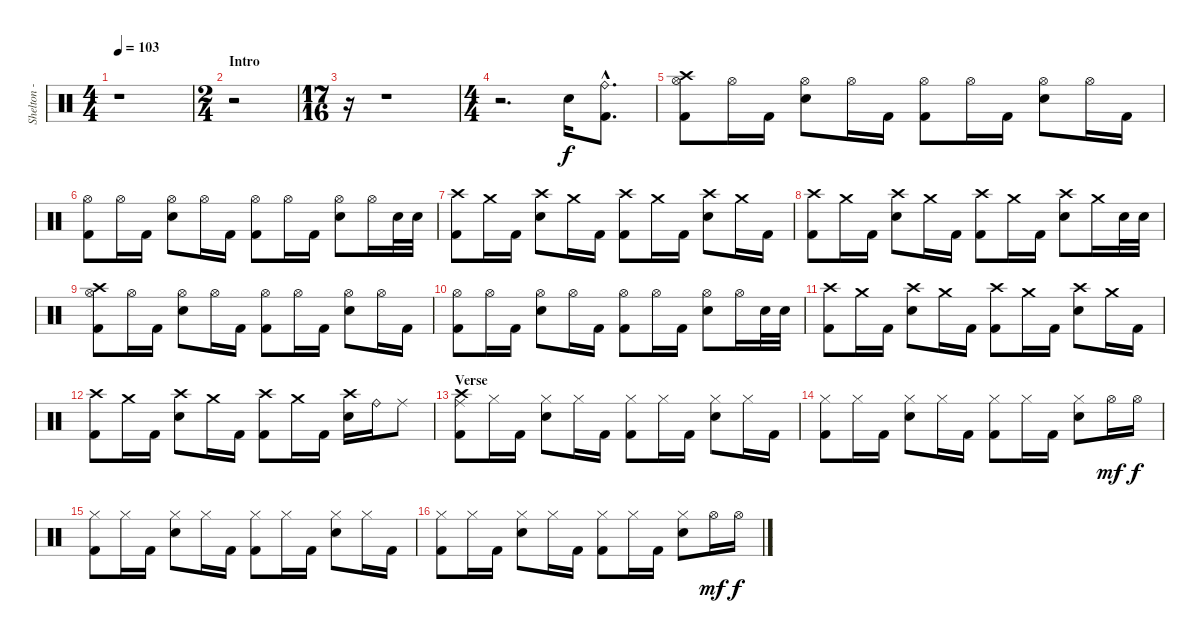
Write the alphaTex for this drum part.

\track ("Shelton - Drums" "Shelton - ") {instrument percussion}
\staff {score}
\articulation defaults
\ts (4 4)
\tempo 103
\clef neutral
\ks c
r.1{dy f} |
\ts (2 4)
\section ("" "Intro")
r.2 |
\ts (17 16)
r.16 r.1 |
\ts (4 4)
r.2{d} "Electric Snare (hit)".16 ("Ride (bell)"{hac} "Kick (hit) 2"{hac}).8{d} |
("Hi-Hat (open)" "Crash high (hit)" "Kick (hit) 2").8 "Hi-Hat (open)".16 "Kick (hit) 2".16 ("Hi-Hat (open)" "Electric Snare (hit)").8 "Hi-Hat (open)".16 "Kick (hit) 2".16 ("Hi-Hat (open)" "Kick (hit) 2").8 "Hi-Hat (open)".16 "Kick (hit) 2".16 ("Hi-Hat (open)" "Electric Snare (hit)").8 "Hi-Hat (open)".16 "Kick (hit) 2".16 |
("Hi-Hat (open)" "Kick (hit) 2").8 "Hi-Hat (open)".16 "Kick (hit) 2".16 ("Hi-Hat (open)" "Electric Snare (hit)").8 "Hi-Hat (open)".16 "Kick (hit) 2".16 ("Hi-Hat (open)" "Kick (hit) 2").8 "Hi-Hat (open)".16 "Kick (hit) 2".16 ("Hi-Hat (open)" "Electric Snare (hit)").8 "Hi-Hat (open)".16 "Electric Snare (hit)".32 "Electric Snare (hit)".32 |
("Crash high (hit)" "Kick (hit) 2").8 "Crash medium (hit)".16 "Kick (hit) 2".16 ("Crash high (hit)" "Electric Snare (hit)").8 "Crash medium (hit)".16 "Kick (hit) 2".16 ("Crash high (hit)" "Kick (hit) 2").8 "Crash medium (hit)".16 "Kick (hit) 2".16 ("Crash high (hit)" "Electric Snare (hit)").8 "Crash medium (hit)".16 "Kick (hit) 2".16 |
("Crash high (hit)" "Kick (hit) 2").8 "Crash medium (hit)".16 "Kick (hit) 2".16 ("Crash high (hit)" "Electric Snare (hit)").8 "Crash medium (hit)".16 "Kick (hit) 2".16 ("Crash high (hit)" "Kick (hit) 2").8 "Crash medium (hit)".16 "Kick (hit) 2".16 ("Crash high (hit)" "Electric Snare (hit)").8 "Crash medium (hit)".16 "Electric Snare (hit)".32 "Electric Snare (hit)".32 |
("Hi-Hat (open)" "Crash high (hit)" "Kick (hit) 2").8 "Hi-Hat (open)".16 "Kick (hit) 2".16 ("Hi-Hat (open)" "Electric Snare (hit)").8 "Hi-Hat (open)".16 "Kick (hit) 2".16 ("Hi-Hat (open)" "Kick (hit) 2").8 "Hi-Hat (open)".16 "Kick (hit) 2".16 ("Hi-Hat (open)" "Electric Snare (hit)").8 "Hi-Hat (open)".16 "Kick (hit) 2".16 |
("Hi-Hat (open)" "Kick (hit) 2").8 "Hi-Hat (open)".16 "Kick (hit) 2".16 ("Hi-Hat (open)" "Electric Snare (hit)").8 "Hi-Hat (open)".16 "Kick (hit) 2".16 ("Hi-Hat (open)" "Kick (hit) 2").8 "Hi-Hat (open)".16 "Kick (hit) 2".16 ("Hi-Hat (open)" "Electric Snare (hit)").8 "Hi-Hat (open)".16 "Electric Snare (hit)".32 "Electric Snare (hit)".32 |
("Crash high (hit)" "Kick (hit) 2").8 "Crash medium (hit)".16 "Kick (hit) 2".16 ("Crash high (hit)" "Electric Snare (hit)").8 "Crash medium (hit)".16 "Kick (hit) 2".16 ("Crash high (hit)" "Kick (hit) 2").8 "Crash medium (hit)".16 "Kick (hit) 2".16 ("Crash high (hit)" "Electric Snare (hit)").8 "Crash medium (hit)".16 "Kick (hit) 2".16 |
("Crash high (hit)" "Kick (hit) 2").8 "Crash medium (hit)".16 "Kick (hit) 2".16 ("Crash high (hit)" "Electric Snare (hit)").8 "Crash medium (hit)".16 "Kick (hit) 2".16 ("Crash high (hit)" "Kick (hit) 2").8 "Crash medium (hit)".16 "Kick (hit) 2".16 ("Crash high (hit)" "Electric Snare (hit)").16 "Ride (bell)".16 "Ride (middle)".8 |
\section ("" "Verse")
("Crash high (hit)" "Ride (middle)" "Kick (hit) 2").8 "Hi-Hat (closed)".16 "Kick (hit) 2".16 ("Hi-Hat (closed)" "Electric Snare (hit)").8 "Hi-Hat (closed)".16 "Kick (hit) 2".16 ("Hi-Hat (closed)" "Kick (hit) 2").8 "Hi-Hat (closed)".16 "Kick (hit) 2".16 ("Hi-Hat (closed)" "Electric Snare (hit)").8 "Hi-Hat (closed)".16 "Kick (hit) 2".16 |
("Hi-Hat (closed)" "Kick (hit) 2").8 "Hi-Hat (closed)".16 "Kick (hit) 2".16 ("Hi-Hat (closed)" "Electric Snare (hit)").8 "Hi-Hat (closed)".16 "Kick (hit) 2".16 ("Hi-Hat (closed)" "Kick (hit) 2").8 "Hi-Hat (closed)".16 "Kick (hit) 2".16 ("Hi-Hat (closed)" "Electric Snare (hit)").8 "Hi-Hat (open)".16{dy mf} "Hi-Hat (open)".16{dy f} |
("Hi-Hat (closed)" "Kick (hit) 2").8 "Hi-Hat (closed)".16 "Kick (hit) 2".16 ("Hi-Hat (closed)" "Electric Snare (hit)").8 "Hi-Hat (closed)".16 "Kick (hit) 2".16 ("Hi-Hat (closed)" "Kick (hit) 2").8 "Hi-Hat (closed)".16 "Kick (hit) 2".16 ("Hi-Hat (closed)" "Electric Snare (hit)").8 "Hi-Hat (closed)".16 "Kick (hit) 2".16 |
("Hi-Hat (closed)" "Kick (hit) 2").8 "Hi-Hat (closed)".16 "Kick (hit) 2".16 ("Hi-Hat (closed)" "Electric Snare (hit)").8 "Hi-Hat (closed)".16 "Kick (hit) 2".16 ("Hi-Hat (closed)" "Kick (hit) 2").8 "Hi-Hat (closed)".16 "Kick (hit) 2".16 ("Hi-Hat (closed)" "Electric Snare (hit)").8 "Hi-Hat (open)".16{dy mf} "Hi-Hat (open)".16{dy f}
